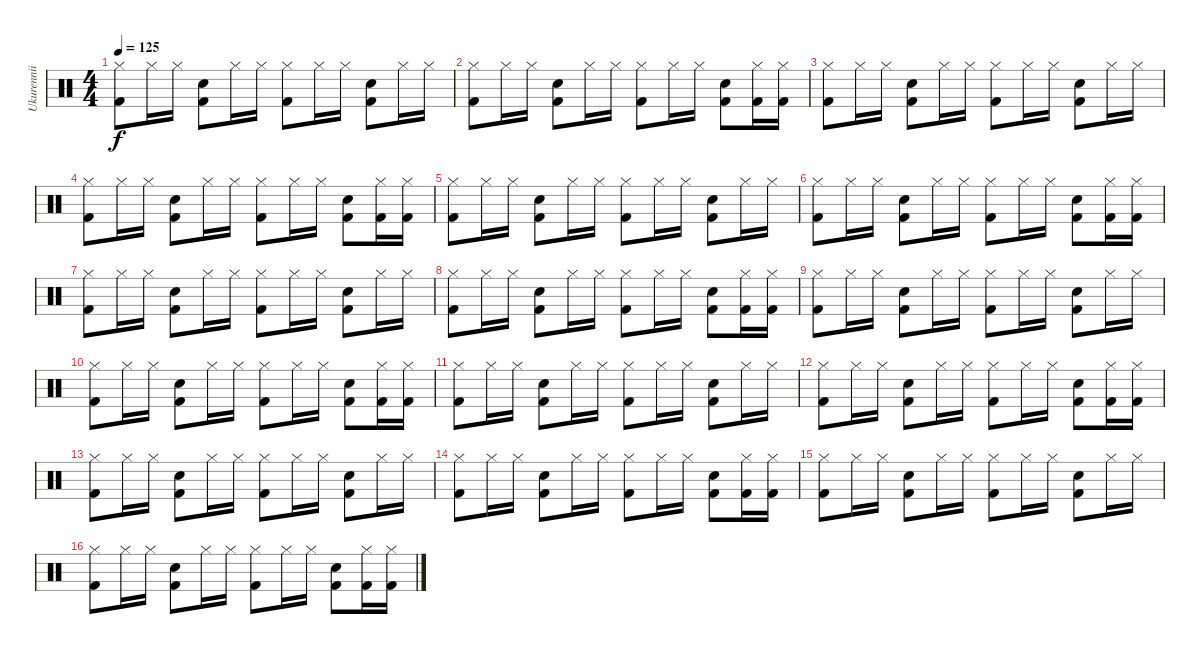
\track ("Ukurennii Drums" "Ukurennii ") {instrument percussion}
\staff {score}
\articulation defaults
\ts (4 4)
\tempo 125
\clef neutral
\ks c
("Kick (hit) 2" "Hi-Hat (closed)").8{dy f} "Hi-Hat (closed)".16 "Hi-Hat (closed)".16 ("Kick (hit) 2" "Snare (hit) 2").8 "Hi-Hat (closed)".16 "Hi-Hat (closed)".16 ("Hi-Hat (closed)" "Kick (hit) 2").8 "Hi-Hat (closed)".16 "Hi-Hat (closed)".16 ("Kick (hit) 2" "Snare (hit) 2").8 "Hi-Hat (closed)".16 "Hi-Hat (closed)".16 |
("Hi-Hat (closed)" "Kick (hit) 2").8 "Hi-Hat (closed)".16 "Hi-Hat (closed)".16 ("Snare (hit) 2" "Kick (hit) 2").8 "Hi-Hat (closed)".16 "Hi-Hat (closed)".16 ("Kick (hit) 2" "Hi-Hat (closed)").8 "Hi-Hat (closed)".16 "Hi-Hat (closed)".16 ("Snare (hit) 2" "Kick (hit) 2").8 ("Hi-Hat (closed)" "Kick (hit) 2").16 ("Kick (hit) 2" "Hi-Hat (closed)").16 |
("Hi-Hat (closed)" "Kick (hit) 2").8 "Hi-Hat (closed)".16 "Hi-Hat (closed)".16 ("Kick (hit) 2" "Snare (hit) 2").8 "Hi-Hat (closed)".16 "Hi-Hat (closed)".16 ("Hi-Hat (closed)" "Kick (hit) 2").8 "Hi-Hat (closed)".16 "Hi-Hat (closed)".16 ("Kick (hit) 2" "Snare (hit) 2").8 "Hi-Hat (closed)".16 "Hi-Hat (closed)".16 |
("Kick (hit) 2" "Hi-Hat (closed)").8 "Hi-Hat (closed)".16 "Hi-Hat (closed)".16 ("Kick (hit) 2" "Snare (hit) 2").8 "Hi-Hat (closed)".16 "Hi-Hat (closed)".16 ("Kick (hit) 2" "Hi-Hat (closed)").8 "Hi-Hat (closed)".16 "Hi-Hat (closed)".16 ("Kick (hit) 2" "Snare (hit) 2").8 ("Hi-Hat (closed)" "Kick (hit) 2").16 ("Hi-Hat (closed)" "Kick (hit) 2").16 |
("Kick (hit) 2" "Hi-Hat (closed)").8 "Hi-Hat (closed)".16 "Hi-Hat (closed)".16 ("Kick (hit) 2" "Snare (hit) 2").8 "Hi-Hat (closed)".16 "Hi-Hat (closed)".16 ("Hi-Hat (closed)" "Kick (hit) 2").8 "Hi-Hat (closed)".16 "Hi-Hat (closed)".16 ("Kick (hit) 2" "Snare (hit) 2").8 "Hi-Hat (closed)".16 "Hi-Hat (closed)".16 |
("Hi-Hat (closed)" "Kick (hit) 2").8 "Hi-Hat (closed)".16 "Hi-Hat (closed)".16 ("Snare (hit) 2" "Kick (hit) 2").8 "Hi-Hat (closed)".16 "Hi-Hat (closed)".16 ("Kick (hit) 2" "Hi-Hat (closed)").8 "Hi-Hat (closed)".16 "Hi-Hat (closed)".16 ("Snare (hit) 2" "Kick (hit) 2").8 ("Hi-Hat (closed)" "Kick (hit) 2").16 ("Kick (hit) 2" "Hi-Hat (closed)").16 |
("Hi-Hat (closed)" "Kick (hit) 2").8 "Hi-Hat (closed)".16 "Hi-Hat (closed)".16 ("Kick (hit) 2" "Snare (hit) 2").8 "Hi-Hat (closed)".16 "Hi-Hat (closed)".16 ("Hi-Hat (closed)" "Kick (hit) 2").8 "Hi-Hat (closed)".16 "Hi-Hat (closed)".16 ("Kick (hit) 2" "Snare (hit) 2").8 "Hi-Hat (closed)".16 "Hi-Hat (closed)".16 |
("Kick (hit) 2" "Hi-Hat (closed)").8 "Hi-Hat (closed)".16 "Hi-Hat (closed)".16 ("Kick (hit) 2" "Snare (hit) 2").8 "Hi-Hat (closed)".16 "Hi-Hat (closed)".16 ("Kick (hit) 2" "Hi-Hat (closed)").8 "Hi-Hat (closed)".16 "Hi-Hat (closed)".16 ("Kick (hit) 2" "Snare (hit) 2").8 ("Hi-Hat (closed)" "Kick (hit) 2").16 ("Hi-Hat (closed)" "Kick (hit) 2").16 |
("Kick (hit) 2" "Hi-Hat (closed)").8 "Hi-Hat (closed)".16 "Hi-Hat (closed)".16 ("Kick (hit) 2" "Snare (hit) 2").8 "Hi-Hat (closed)".16 "Hi-Hat (closed)".16 ("Kick (hit) 2" "Hi-Hat (closed)").8 "Hi-Hat (closed)".16 "Hi-Hat (closed)".16 ("Snare (hit) 2" "Kick (hit) 2").8 "Hi-Hat (closed)".16 "Hi-Hat (closed)".16 |
("Hi-Hat (closed)" "Kick (hit) 2").8 "Hi-Hat (closed)".16 "Hi-Hat (closed)".16 ("Kick (hit) 2" "Snare (hit) 2").8 "Hi-Hat (closed)".16 "Hi-Hat (closed)".16 ("Hi-Hat (closed)" "Kick (hit) 2").8 "Hi-Hat (closed)".16 "Hi-Hat (closed)".16 ("Snare (hit) 2" "Kick (hit) 2").8 ("Hi-Hat (closed)" "Kick (hit) 2").16 ("Kick (hit) 2" "Hi-Hat (closed)").16 |
("Hi-Hat (closed)" "Kick (hit) 2").8 "Hi-Hat (closed)".16 "Hi-Hat (closed)".16 ("Snare (hit) 2" "Kick (hit) 2").8 "Hi-Hat (closed)".16 "Hi-Hat (closed)".16 ("Kick (hit) 2" "Hi-Hat (closed)").8 "Hi-Hat (closed)".16 "Hi-Hat (closed)".16 ("Kick (hit) 2" "Snare (hit) 2").8 "Hi-Hat (closed)".16 "Hi-Hat (closed)".16 |
("Kick (hit) 2" "Hi-Hat (closed)").8 "Hi-Hat (closed)".16 "Hi-Hat (closed)".16 ("Snare (hit) 2" "Kick (hit) 2").8 "Hi-Hat (closed)".16 "Hi-Hat (closed)".16 ("Hi-Hat (closed)" "Kick (hit) 2").8 "Hi-Hat (closed)".16 "Hi-Hat (closed)".16 ("Snare (hit) 2" "Kick (hit) 2").8 ("Kick (hit) 2" "Hi-Hat (closed)").16 ("Kick (hit) 2" "Hi-Hat (closed)").16 |
("Hi-Hat (closed)" "Kick (hit) 2").8 "Hi-Hat (closed)".16 "Hi-Hat (closed)".16 ("Snare (hit) 2" "Kick (hit) 2").8 "Hi-Hat (closed)".16 "Hi-Hat (closed)".16 ("Kick (hit) 2" "Hi-Hat (closed)").8 "Hi-Hat (closed)".16 "Hi-Hat (closed)".16 ("Kick (hit) 2" "Snare (hit) 2").8 "Hi-Hat (closed)".16 "Hi-Hat (closed)".16 |
("Kick (hit) 2" "Hi-Hat (closed)").8 "Hi-Hat (closed)".16 "Hi-Hat (closed)".16 ("Snare (hit) 2" "Kick (hit) 2").8 "Hi-Hat (closed)".16 "Hi-Hat (closed)".16 ("Hi-Hat (closed)" "Kick (hit) 2").8 "Hi-Hat (closed)".16 "Hi-Hat (closed)".16 ("Kick (hit) 2" "Snare (hit) 2").8 ("Hi-Hat (closed)" "Kick (hit) 2").16 ("Kick (hit) 2" "Hi-Hat (closed)").16 |
("Hi-Hat (closed)" "Kick (hit) 2").8 "Hi-Hat (closed)".16 "Hi-Hat (closed)".16 ("Kick (hit) 2" "Snare (hit) 2").8 "Hi-Hat (closed)".16 "Hi-Hat (closed)".16 ("Hi-Hat (closed)" "Kick (hit) 2").8 "Hi-Hat (closed)".16 "Hi-Hat (closed)".16 ("Snare (hit) 2" "Kick (hit) 2").8 "Hi-Hat (closed)".16 "Hi-Hat (closed)".16 |
("Kick (hit) 2" "Hi-Hat (closed)").8 "Hi-Hat (closed)".16 "Hi-Hat (closed)".16 ("Kick (hit) 2" "Snare (hit) 2").8 "Hi-Hat (closed)".16 "Hi-Hat (closed)".16 ("Hi-Hat (closed)" "Kick (hit) 2").8 "Hi-Hat (closed)".16 "Hi-Hat (closed)".16 ("Snare (hit) 2" "Kick (hit) 2").8 ("Hi-Hat (closed)" "Kick (hit) 2").16 ("Kick (hit) 2" "Hi-Hat (closed)").16
